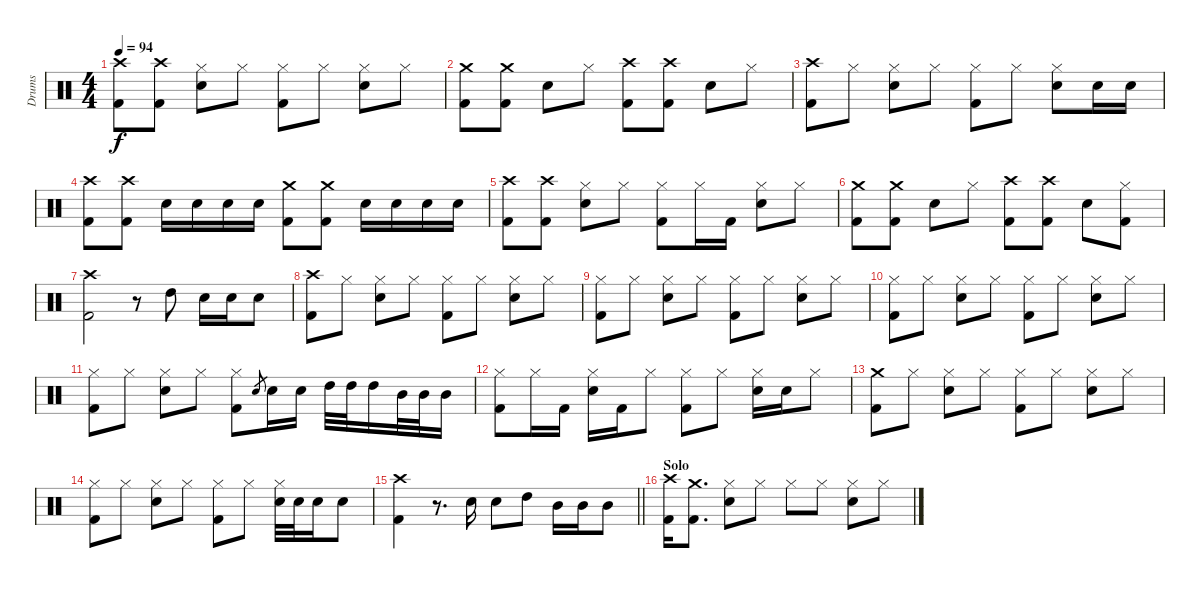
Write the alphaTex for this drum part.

\track ("Drums" "Drums") {instrument percussion}
\staff {score}
\articulation defaults
\ts (4 4)
\tempo 94
\clef neutral
\ks c
("Crash high (hit)" "Kick (hit) 2").8{dy f} ("Crash high (hit)" "Kick (hit) 2").8 ("Hi-Hat (closed)" "Snare (hit) 2").8 "Hi-Hat (closed)".8 ("Hi-Hat (closed)" "Kick (hit) 2").8 "Hi-Hat (closed)".8 ("Hi-Hat (closed)" "Snare (hit) 2").8 "Hi-Hat (closed)".8 |
("Crash medium (hit)" "Kick (hit) 2").8 ("Crash medium (hit)" "Kick (hit) 2").8 "Snare (hit) 2".8 "Hi-Hat (closed)".8 ("Crash high (hit)" "Kick (hit) 2").8 ("Crash high (hit)" "Kick (hit) 2").8 "Snare (hit) 2".8 "Hi-Hat (closed)".8 |
("Crash high (hit)" "Kick (hit) 2").8 "Hi-Hat (closed)".8 ("Hi-Hat (closed)" "Snare (hit) 2").8 "Hi-Hat (closed)".8 ("Hi-Hat (closed)" "Kick (hit) 2").8 "Hi-Hat (closed)".8 ("Hi-Hat (closed)" "Snare (hit) 2").8 "Snare (hit) 2".16 "Snare (hit) 2".16 |
("Crash high (hit)" "Kick (hit) 2").8 ("Crash high (hit)" "Kick (hit) 2").8 "Snare (hit) 2".16 "Snare (hit) 2".16 "Snare (hit) 2".16 "Snare (hit) 2".16 ("Crash medium (hit)" "Kick (hit) 2").8 ("Crash medium (hit)" "Kick (hit) 2").8 "Snare (hit) 2".16 "Snare (hit) 2".16 "Snare (hit) 2".16 "Snare (hit) 2".16 |
("Crash high (hit)" "Kick (hit) 2").8 ("Crash high (hit)" "Kick (hit) 2").8 ("Hi-Hat (closed)" "Snare (hit) 2").8 "Hi-Hat (closed)".8 ("Hi-Hat (closed)" "Kick (hit) 2").8 "Hi-Hat (closed)".16 "Kick (hit) 2".16 ("Hi-Hat (closed)" "Snare (hit) 2").8 "Hi-Hat (closed)".8 |
("Crash medium (hit)" "Kick (hit) 2").8 ("Crash medium (hit)" "Kick (hit) 2").8 "Snare (hit) 2".8 "Hi-Hat (closed)".8 ("Crash high (hit)" "Kick (hit) 2").8 ("Crash high (hit)" "Kick (hit) 2").8 "Snare (hit) 2".8 ("Hi-Hat (closed)" "Kick (hit) 2").8 |
("Crash high (hit)" "Kick (hit) 2").2 r.8 "High Tom (hit)".8 "Snare (hit) 2".16 "Snare (hit) 2".16 "Snare (hit) 2".8 |
("Crash high (hit)" "Kick (hit) 2").8 "Hi-Hat (closed)".8 ("Hi-Hat (closed)" "Snare (hit) 2").8 "Hi-Hat (closed)".8 ("Hi-Hat (closed)" "Kick (hit) 2").8 "Hi-Hat (closed)".8 ("Hi-Hat (closed)" "Snare (hit) 2").8 "Hi-Hat (closed)".8 |
("Hi-Hat (closed)" "Kick (hit) 2").8 "Hi-Hat (closed)".8 ("Hi-Hat (closed)" "Snare (hit) 2").8 "Hi-Hat (closed)".8 ("Hi-Hat (closed)" "Kick (hit) 2").8 "Hi-Hat (closed)".8 ("Hi-Hat (closed)" "Snare (hit) 2").8 "Hi-Hat (closed)".8 |
("Hi-Hat (closed)" "Kick (hit) 2").8 "Hi-Hat (closed)".8 ("Hi-Hat (closed)" "Snare (hit) 2").8 "Hi-Hat (closed)".8 ("Hi-Hat (closed)" "Kick (hit) 2").8 "Hi-Hat (closed)".8 ("Hi-Hat (closed)" "Snare (hit) 2").8 "Hi-Hat (closed)".8 |
("Hi-Hat (closed)" "Kick (hit) 2").8 "Hi-Hat (closed)".8 ("Hi-Hat (closed)" "Snare (hit) 2").8 "Hi-Hat (closed)".8 ("Hi-Hat (closed)" "Kick (hit) 2").8 "Snare (hit) 2".8{gr} "Snare (hit) 2".16 "Snare (hit) 2".16 "High Tom (hit)".32 "High Tom (hit)".32 "High Tom (hit)".16 "Mid Tom (hit)".32 "Mid Tom (hit)".32 "Mid Tom (hit)".16 |
("Hi-Hat (closed)" "Kick (hit) 2").8 "Hi-Hat (closed)".16 "Kick (hit) 2".16 ("Hi-Hat (closed)" "Snare (hit) 2").16 "Kick (hit) 2".16 "Hi-Hat (closed)".8 ("Hi-Hat (closed)" "Kick (hit) 2").8 "Hi-Hat (closed)".8 ("Hi-Hat (closed)" "Snare (hit) 2").16 "Snare (hit) 2".16 "Hi-Hat (closed)".8 |
("Crash medium (hit)" "Kick (hit) 2").8 "Hi-Hat (closed)".8 ("Hi-Hat (closed)" "Snare (hit) 2").8 "Hi-Hat (closed)".8 ("Hi-Hat (closed)" "Kick (hit) 2").8 "Hi-Hat (closed)".8 ("Hi-Hat (closed)" "Snare (hit) 2").8 "Hi-Hat (closed)".8 |
("Hi-Hat (closed)" "Kick (hit) 2").8 "Hi-Hat (closed)".8 ("Hi-Hat (closed)" "Snare (hit) 2").8 "Hi-Hat (closed)".8 ("Hi-Hat (closed)" "Kick (hit) 2").8 "Hi-Hat (closed)".8 ("Hi-Hat (closed)" "Snare (hit) 2").32 "Snare (hit) 2".32 "Snare (hit) 2".16 "Snare (hit) 2".8 |
\barLineRight lightlight
("Crash high (hit)" "Kick (hit) 2").4 r.8{d} "Snare (hit) 2".16 "Snare (hit) 2".8 "High Tom (hit)".8 "Mid Tom (hit)".16 "Mid Tom (hit)".16 "Mid Tom (hit)".8 |
\section ("" "Solo")
("Crash high (hit)" "Kick (hit) 2").16 ("Crash medium (hit)" "Kick (hit) 2").8{d} ("Hi-Hat (closed)" "Snare (hit) 2").8 "Hi-Hat (closed)".8 "Hi-Hat (closed)".8 "Hi-Hat (closed)".8 ("Hi-Hat (closed)" "Snare (hit) 2").8 "Hi-Hat (closed)".8
